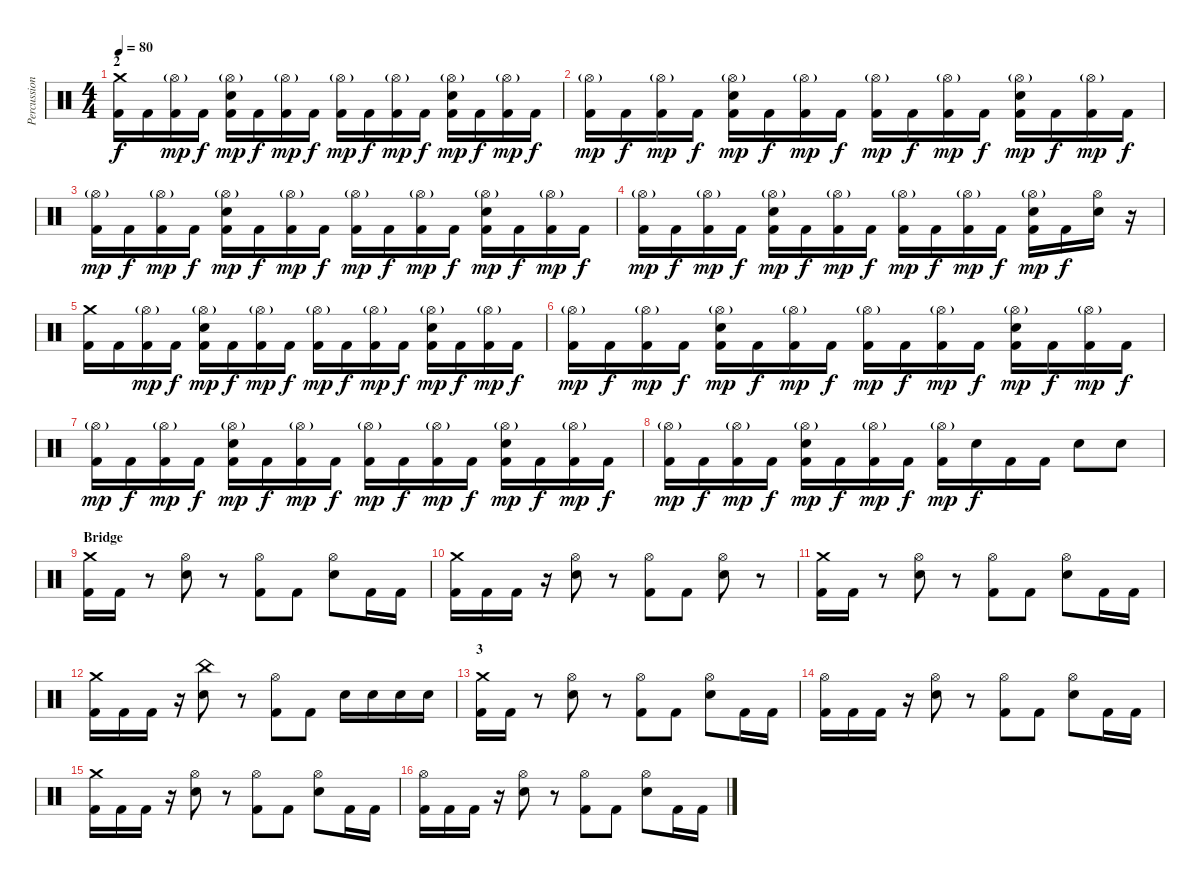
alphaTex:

\track ("Percussions" "Percussion") {instrument percussion}
\staff {score}
\articulation defaults
\ts (4 4)
\section ("" "2")
\tempo 80
\clef neutral
\ks c
("Crash medium (hit)" "Kick (hit) 2").16{dy f} "Kick (hit) 2".16 ("Hi-Hat (open)"{g} "Kick (hit) 2").16{dy mp} "Kick (hit) 2".16{dy f} ("Hi-Hat (open)"{g} "Electric Snare (hit)" "Kick (hit) 2").16{dy mp} "Kick (hit) 2".16{dy f} ("Hi-Hat (open)"{g} "Kick (hit) 2").16{dy mp} "Kick (hit) 2".16{dy f} ("Hi-Hat (open)"{g} "Kick (hit) 2").16{dy mp} "Kick (hit) 2".16{dy f} ("Hi-Hat (open)"{g} "Kick (hit) 2").16{dy mp} "Kick (hit) 2".16{dy f} ("Hi-Hat (open)"{g} "Electric Snare (hit)" "Kick (hit) 2").16{dy mp} "Kick (hit) 2".16{dy f} ("Hi-Hat (open)"{g} "Kick (hit) 2").16{dy mp} "Kick (hit) 2".16{dy f} |
("Hi-Hat (open)"{g} "Kick (hit) 2").16{dy mp} "Kick (hit) 2".16{dy f} ("Hi-Hat (open)"{g} "Kick (hit) 2").16{dy mp} "Kick (hit) 2".16{dy f} ("Hi-Hat (open)"{g} "Electric Snare (hit)" "Kick (hit) 2").16{dy mp} "Kick (hit) 2".16{dy f} ("Hi-Hat (open)"{g} "Kick (hit) 2").16{dy mp} "Kick (hit) 2".16{dy f} ("Hi-Hat (open)"{g} "Kick (hit) 2").16{dy mp} "Kick (hit) 2".16{dy f} ("Hi-Hat (open)"{g} "Kick (hit) 2").16{dy mp} "Kick (hit) 2".16{dy f} ("Hi-Hat (open)"{g} "Electric Snare (hit)" "Kick (hit) 2").16{dy mp} "Kick (hit) 2".16{dy f} ("Hi-Hat (open)"{g} "Kick (hit) 2").16{dy mp} "Kick (hit) 2".16{dy f} |
("Hi-Hat (open)"{g} "Kick (hit) 2").16{dy mp} "Kick (hit) 2".16{dy f} ("Hi-Hat (open)"{g} "Kick (hit) 2").16{dy mp} "Kick (hit) 2".16{dy f} ("Hi-Hat (open)"{g} "Electric Snare (hit)" "Kick (hit) 2").16{dy mp} "Kick (hit) 2".16{dy f} ("Hi-Hat (open)"{g} "Kick (hit) 2").16{dy mp} "Kick (hit) 2".16{dy f} ("Hi-Hat (open)"{g} "Kick (hit) 2").16{dy mp} "Kick (hit) 2".16{dy f} ("Hi-Hat (open)"{g} "Kick (hit) 2").16{dy mp} "Kick (hit) 2".16{dy f} ("Hi-Hat (open)"{g} "Electric Snare (hit)" "Kick (hit) 2").16{dy mp} "Kick (hit) 2".16{dy f} ("Hi-Hat (open)"{g} "Kick (hit) 2").16{dy mp} "Kick (hit) 2".16{dy f} |
("Hi-Hat (open)"{g} "Kick (hit) 2").16{dy mp} "Kick (hit) 2".16{dy f} ("Hi-Hat (open)"{g} "Kick (hit) 2").16{dy mp} "Kick (hit) 2".16{dy f} ("Hi-Hat (open)"{g} "Electric Snare (hit)" "Kick (hit) 2").16{dy mp} "Kick (hit) 2".16{dy f} ("Hi-Hat (open)"{g} "Kick (hit) 2").16{dy mp} "Kick (hit) 2".16{dy f} ("Hi-Hat (open)"{g} "Kick (hit) 2").16{dy mp} "Kick (hit) 2".16{dy f} ("Hi-Hat (open)"{g} "Kick (hit) 2").16{dy mp} "Kick (hit) 2".16{dy f} ("Hi-Hat (open)"{g} "Electric Snare (hit)" "Kick (hit) 2").16{dy mp} "Kick (hit) 2".16{dy f} ("Hi-Hat (open)" "Electric Snare (hit)").16 r.16 |
("Crash medium (hit)" "Kick (hit) 2").16 "Kick (hit) 2".16 ("Hi-Hat (open)"{g} "Kick (hit) 2").16{dy mp} "Kick (hit) 2".16{dy f} ("Hi-Hat (open)"{g} "Electric Snare (hit)" "Kick (hit) 2").16{dy mp} "Kick (hit) 2".16{dy f} ("Hi-Hat (open)"{g} "Kick (hit) 2").16{dy mp} "Kick (hit) 2".16{dy f} ("Hi-Hat (open)"{g} "Kick (hit) 2").16{dy mp} "Kick (hit) 2".16{dy f} ("Hi-Hat (open)"{g} "Kick (hit) 2").16{dy mp} "Kick (hit) 2".16{dy f} ("Hi-Hat (open)"{g} "Electric Snare (hit)" "Kick (hit) 2").16{dy mp} "Kick (hit) 2".16{dy f} ("Hi-Hat (open)"{g} "Kick (hit) 2").16{dy mp} "Kick (hit) 2".16{dy f} |
("Hi-Hat (open)"{g} "Kick (hit) 2").16{dy mp} "Kick (hit) 2".16{dy f} ("Hi-Hat (open)"{g} "Kick (hit) 2").16{dy mp} "Kick (hit) 2".16{dy f} ("Hi-Hat (open)"{g} "Electric Snare (hit)" "Kick (hit) 2").16{dy mp} "Kick (hit) 2".16{dy f} ("Hi-Hat (open)"{g} "Kick (hit) 2").16{dy mp} "Kick (hit) 2".16{dy f} ("Hi-Hat (open)"{g} "Kick (hit) 2").16{dy mp} "Kick (hit) 2".16{dy f} ("Hi-Hat (open)"{g} "Kick (hit) 2").16{dy mp} "Kick (hit) 2".16{dy f} ("Hi-Hat (open)"{g} "Electric Snare (hit)" "Kick (hit) 2").16{dy mp} "Kick (hit) 2".16{dy f} ("Hi-Hat (open)"{g} "Kick (hit) 2").16{dy mp} "Kick (hit) 2".16{dy f} |
("Hi-Hat (open)"{g} "Kick (hit) 2").16{dy mp} "Kick (hit) 2".16{dy f} ("Hi-Hat (open)"{g} "Kick (hit) 2").16{dy mp} "Kick (hit) 2".16{dy f} ("Hi-Hat (open)"{g} "Electric Snare (hit)" "Kick (hit) 2").16{dy mp} "Kick (hit) 2".16{dy f} ("Hi-Hat (open)"{g} "Kick (hit) 2").16{dy mp} "Kick (hit) 2".16{dy f} ("Hi-Hat (open)"{g} "Kick (hit) 2").16{dy mp} "Kick (hit) 2".16{dy f} ("Hi-Hat (open)"{g} "Kick (hit) 2").16{dy mp} "Kick (hit) 2".16{dy f} ("Hi-Hat (open)"{g} "Electric Snare (hit)" "Kick (hit) 2").16{dy mp} "Kick (hit) 2".16{dy f} ("Hi-Hat (open)"{g} "Kick (hit) 2").16{dy mp} "Kick (hit) 2".16{dy f} |
("Hi-Hat (open)"{g} "Kick (hit) 2").16{dy mp} "Kick (hit) 2".16{dy f} ("Hi-Hat (open)"{g} "Kick (hit) 2").16{dy mp} "Kick (hit) 2".16{dy f} ("Hi-Hat (open)"{g} "Electric Snare (hit)" "Kick (hit) 2").16{dy mp} "Kick (hit) 2".16{dy f} ("Hi-Hat (open)"{g} "Kick (hit) 2").16{dy mp} "Kick (hit) 2".16{dy f} ("Hi-Hat (open)"{g} "Kick (hit) 2").16{dy mp} "Electric Snare (hit)".16{dy f} "Kick (hit) 2".16 "Kick (hit) 2".16 "Electric Snare (hit)".8 "Electric Snare (hit)".8 |
\section ("" "Bridge")
("Crash medium (hit)" "Kick (hit) 2").16 "Kick (hit) 2".16 r.8 ("Hi-Hat (open)" "Electric Snare (hit)").8 r.8 ("Hi-Hat (open)" "Kick (hit) 2").8 "Kick (hit) 2".8 ("Hi-Hat (open)" "Electric Snare (hit)").8 "Kick (hit) 2".16 "Kick (hit) 2".16 |
("Crash medium (hit)" "Kick (hit) 2").16 "Kick (hit) 2".16 "Kick (hit) 2".16 r.16 ("Hi-Hat (open)" "Electric Snare (hit)").8 r.8 ("Hi-Hat (open)" "Kick (hit) 2").8 "Kick (hit) 2".8 ("Hi-Hat (open)" "Electric Snare (hit)").8 r.8 |
("Crash medium (hit)" "Kick (hit) 2").16 "Kick (hit) 2".16 r.8 ("Hi-Hat (open)" "Electric Snare (hit)").8 r.8 ("Hi-Hat (open)" "Kick (hit) 2").8 "Kick (hit) 2".8 ("Hi-Hat (open)" "Electric Snare (hit)").8 "Kick (hit) 2".16 "Kick (hit) 2".16 |
("Crash medium (hit)" "Kick (hit) 2").16 "Kick (hit) 2".16 "Kick (hit) 2".16 r.16 ("China (hit)" "Electric Snare (hit)").8 r.8 ("Hi-Hat (open)" "Kick (hit) 2").8 "Kick (hit) 2".8 "Electric Snare (hit)".16 "Electric Snare (hit)".16 "Electric Snare (hit)".16 "Electric Snare (hit)".16 |
\section ("" "3")
("Crash medium (hit)" "Kick (hit) 2").16 "Kick (hit) 2".16 r.8 ("Hi-Hat (open)" "Electric Snare (hit)").8 r.8 ("Hi-Hat (open)" "Kick (hit) 2").8 "Kick (hit) 2".8 ("Hi-Hat (open)" "Electric Snare (hit)").8 "Kick (hit) 2".16 "Kick (hit) 2".16 |
("Hi-Hat (open)" "Kick (hit) 2").16 "Kick (hit) 2".16 "Kick (hit) 2".16 r.16 ("Hi-Hat (open)" "Electric Snare (hit)").8 r.8 ("Hi-Hat (open)" "Kick (hit) 2").8 "Kick (hit) 2".8 ("Hi-Hat (open)" "Electric Snare (hit)").8 "Kick (hit) 2".16 "Kick (hit) 2".16 |
("Crash medium (hit)" "Kick (hit) 2").16 "Kick (hit) 2".16 "Kick (hit) 2".16 r.16 ("Hi-Hat (open)" "Electric Snare (hit)").8 r.8 ("Hi-Hat (open)" "Kick (hit) 2").8 "Kick (hit) 2".8 ("Hi-Hat (open)" "Electric Snare (hit)").8 "Kick (hit) 2".16 "Kick (hit) 2".16 |
("Hi-Hat (open)" "Kick (hit) 2").16 "Kick (hit) 2".16 "Kick (hit) 2".16 r.16 ("Hi-Hat (open)" "Electric Snare (hit)").8 r.8 ("Hi-Hat (open)" "Kick (hit) 2").8 "Kick (hit) 2".8 ("Hi-Hat (open)" "Electric Snare (hit)").8 "Kick (hit) 2".16 "Kick (hit) 2".16
